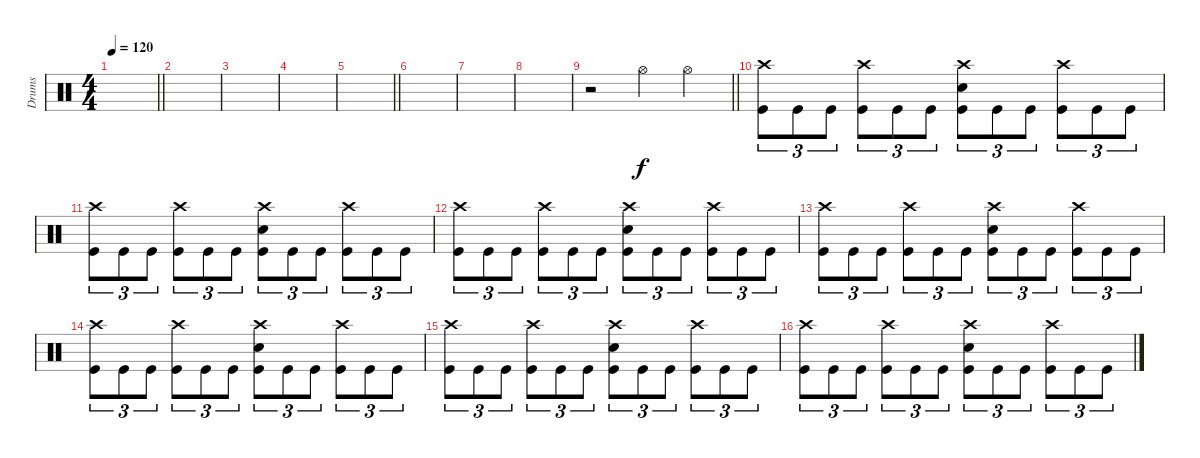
\track ("Drums" "Drums") {instrument percussion}
\staff
\articulation defaults
\ts (4 4)
\tempo 120
\clef neutral
\barLineRight lightlight
\ks c
|
\section ("" "")
|
|
|
\barLineRight lightlight
|
|
|
|
\barLineRight lightlight
r.2 "Hi-Hat (open)".4 "Hi-Hat (open)".4 |
\section ("" "")
("Crash high (hit)" "Kick (hit)").8{tu (3 2)} "Kick (hit)".8{tu (3 2)} "Kick (hit)".8{tu (3 2)} ("Crash high (hit)" "Kick (hit)").8{tu (3 2)} "Kick (hit)".8{tu (3 2)} "Kick (hit)".8{tu (3 2)} ("Crash high (hit)" "Electric Snare (hit)" "Kick (hit)").8{tu (3 2)} "Kick (hit)".8{tu (3 2)} "Kick (hit)".8{tu (3 2)} ("Crash high (hit)" "Kick (hit)").8{tu (3 2)} "Kick (hit)".8{tu (3 2)} "Kick (hit)".8{tu (3 2)} |
("Crash high (hit)" "Kick (hit)").8{tu (3 2)} "Kick (hit)".8{tu (3 2)} "Kick (hit)".8{tu (3 2)} ("Crash high (hit)" "Kick (hit)").8{tu (3 2)} "Kick (hit)".8{tu (3 2)} "Kick (hit)".8{tu (3 2)} ("Crash high (hit)" "Electric Snare (hit)" "Kick (hit)").8{tu (3 2)} "Kick (hit)".8{tu (3 2)} "Kick (hit)".8{tu (3 2)} ("Crash high (hit)" "Kick (hit)").8{tu (3 2)} "Kick (hit)".8{tu (3 2)} "Kick (hit)".8{tu (3 2)} |
("Crash high (hit)" "Kick (hit)").8{tu (3 2)} "Kick (hit)".8{tu (3 2)} "Kick (hit)".8{tu (3 2)} ("Crash high (hit)" "Kick (hit)").8{tu (3 2)} "Kick (hit)".8{tu (3 2)} "Kick (hit)".8{tu (3 2)} ("Crash high (hit)" "Electric Snare (hit)" "Kick (hit)").8{tu (3 2)} "Kick (hit)".8{tu (3 2)} "Kick (hit)".8{tu (3 2)} ("Crash high (hit)" "Kick (hit)").8{tu (3 2)} "Kick (hit)".8{tu (3 2)} "Kick (hit)".8{tu (3 2)} |
("Crash high (hit)" "Kick (hit)").8{tu (3 2)} "Kick (hit)".8{tu (3 2)} "Kick (hit)".8{tu (3 2)} ("Crash high (hit)" "Kick (hit)").8{tu (3 2)} "Kick (hit)".8{tu (3 2)} "Kick (hit)".8{tu (3 2)} ("Crash high (hit)" "Electric Snare (hit)" "Kick (hit)").8{tu (3 2)} "Kick (hit)".8{tu (3 2)} "Kick (hit)".8{tu (3 2)} ("Crash high (hit)" "Kick (hit)").8{tu (3 2)} "Kick (hit)".8{tu (3 2)} "Kick (hit)".8{tu (3 2)} |
("Crash high (hit)" "Kick (hit)").8{tu (3 2)} "Kick (hit)".8{tu (3 2)} "Kick (hit)".8{tu (3 2)} ("Crash high (hit)" "Kick (hit)").8{tu (3 2)} "Kick (hit)".8{tu (3 2)} "Kick (hit)".8{tu (3 2)} ("Crash high (hit)" "Electric Snare (hit)" "Kick (hit)").8{tu (3 2)} "Kick (hit)".8{tu (3 2)} "Kick (hit)".8{tu (3 2)} ("Crash high (hit)" "Kick (hit)").8{tu (3 2)} "Kick (hit)".8{tu (3 2)} "Kick (hit)".8{tu (3 2)} |
("Crash high (hit)" "Kick (hit)").8{tu (3 2)} "Kick (hit)".8{tu (3 2)} "Kick (hit)".8{tu (3 2)} ("Crash high (hit)" "Kick (hit)").8{tu (3 2)} "Kick (hit)".8{tu (3 2)} "Kick (hit)".8{tu (3 2)} ("Crash high (hit)" "Electric Snare (hit)" "Kick (hit)").8{tu (3 2)} "Kick (hit)".8{tu (3 2)} "Kick (hit)".8{tu (3 2)} ("Crash high (hit)" "Kick (hit)").8{tu (3 2)} "Kick (hit)".8{tu (3 2)} "Kick (hit)".8{tu (3 2)} |
("Crash high (hit)" "Kick (hit)").8{tu (3 2)} "Kick (hit)".8{tu (3 2)} "Kick (hit)".8{tu (3 2)} ("Crash high (hit)" "Kick (hit)").8{tu (3 2)} "Kick (hit)".8{tu (3 2)} "Kick (hit)".8{tu (3 2)} ("Crash high (hit)" "Electric Snare (hit)" "Kick (hit)").8{tu (3 2)} "Kick (hit)".8{tu (3 2)} "Kick (hit)".8{tu (3 2)} ("Crash high (hit)" "Kick (hit)").8{tu (3 2)} "Kick (hit)".8{tu (3 2)} "Kick (hit)".8{tu (3 2)}
